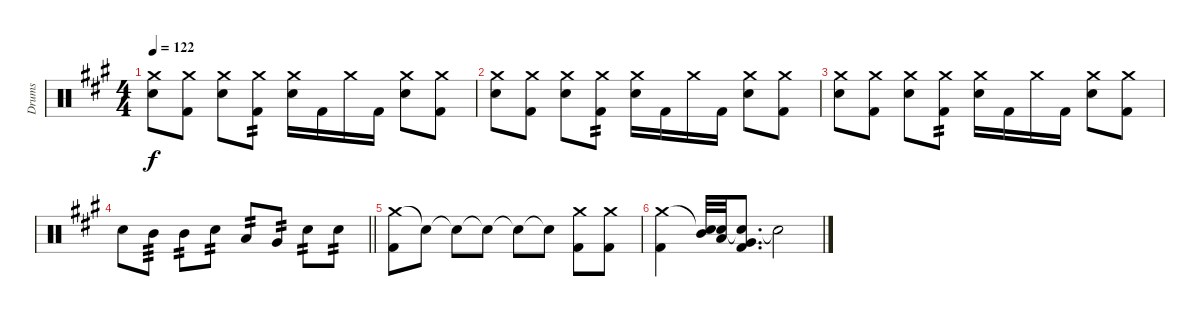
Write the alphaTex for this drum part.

\track ("Drums" "Drums") {instrument percussion}
\staff {score}
\articulation defaults
\ts (4 4)
\tempo 122
\clef neutral
\ks f#minor
("Crash medium (hit)" "Snare (hit) 2").8{dy f} ("Crash medium (hit)" "Kick (hit) 2").8 ("Crash medium (hit)" "Snare (hit) 2").8 ("Crash medium (hit)" "Kick (hit) 2").8{tp 2} ("Crash medium (hit)" "Snare (hit) 2").16 "Kick (hit) 2".16 "Crash medium (hit)".16 "Kick (hit) 2".16 ("Crash medium (hit)" "Snare (hit) 2").8 ("Crash medium (hit)" "Kick (hit) 2").8 |
("Crash medium (hit)" "Snare (hit) 2").8 ("Crash medium (hit)" "Kick (hit) 2").8 ("Crash medium (hit)" "Snare (hit) 2").8 ("Crash medium (hit)" "Kick (hit) 2").8{tp 2} ("Crash medium (hit)" "Snare (hit) 2").16 "Kick (hit) 2".16 "Crash medium (hit)".16 "Kick (hit) 2".16 ("Crash medium (hit)" "Snare (hit) 2").8 ("Crash medium (hit)" "Kick (hit) 2").8 |
("Crash medium (hit)" "Snare (hit) 2").8 ("Crash medium (hit)" "Kick (hit) 2").8 ("Crash medium (hit)" "Snare (hit) 2").8 ("Crash medium (hit)" "Kick (hit) 2").8{tp 2} ("Crash medium (hit)" "Snare (hit) 2").16 "Kick (hit) 2".16 "Crash medium (hit)".16 "Kick (hit) 2".16 ("Crash medium (hit)" "Snare (hit) 2").8 ("Crash medium (hit)" "Kick (hit) 2").8 |
\barLineRight lightlight "Snare (hit) 2".8 "Mid Tom (hit)".8{tp 3} "Mid Tom (hit)".8{tp 2} "Snare (hit) 2".8{tp 2} "Low Tom (hit)".8{tp 2} "Very Low Tom (hit)".8{tp 2} "Snare (hit) 2".8{tp 2} "Snare (hit) 2".8{tp 2}
|
("Crash medium (hit)" "Kick (hit) 2").8 "Snare (hit)"{t}.8 "Snare (hit)"{t}.8 "Snare (hit)"{t}.8 "Snare (hit)"{t}.8 "Snare (hit)"{t}.8 ("Crash medium (hit)" "Kick (hit) 2").8 ("Crash medium (hit)" "Kick (hit) 2").8 |
("Crash medium (hit)" "Kick (hit) 2").4 ("Snare (hit)"{t} "Mid Tom (hit)").32 ("Snare (hit)"{t} "Low Tom (hit)").32 ("Snare (hit)"{t} "Very Low Tom (hit)" "Kick (hit) 2").8{d} "Snare (hit)"{t}.2
